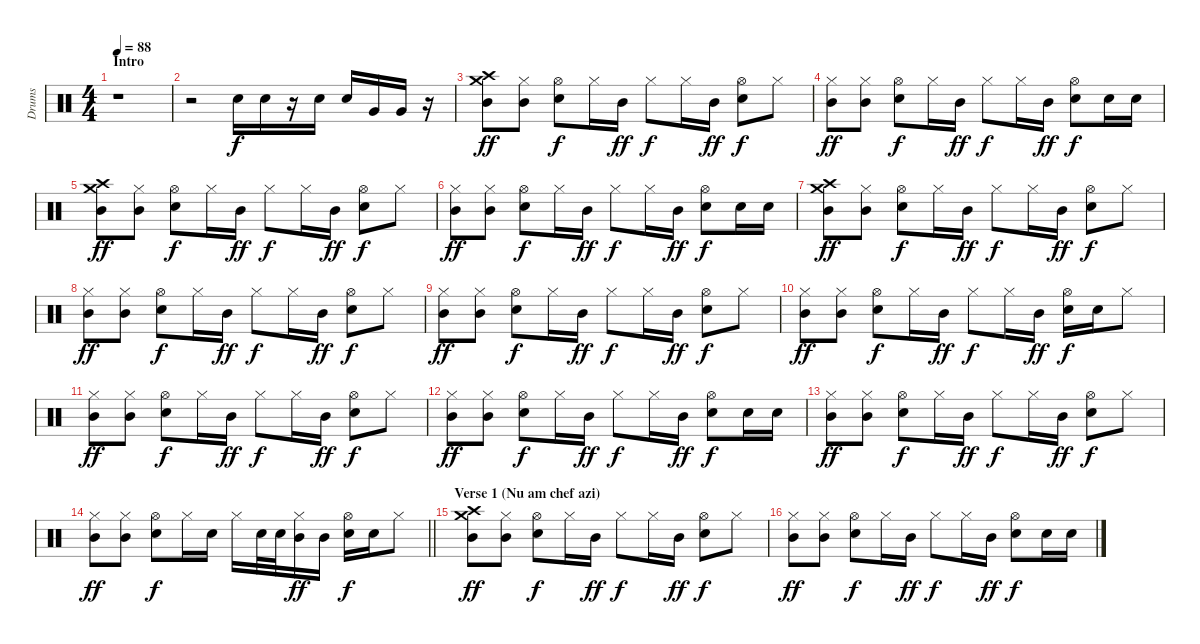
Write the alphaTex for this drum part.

\track ("Drums" "Drums") {instrument percussion}
\staff {score}
\articulation defaults
\ts (4 4)
\section ("" "Intro")
\tempo 88
\clef neutral
\ks c
r.1{dy f} |
r.2 "Metronome (bell)".16 "Metronome (bell)".16 r.16 "Metronome (bell)".16 "Metronome (bell)".16 "Very Low Tom (hit)".16 "Very Low Tom (hit)".16 r.16 |
("Crash medium (hit)" "Crash high (hit)" "Mid Tom (hit)").8{dy ff} ("Hi-Hat (closed)" "Mid Tom (hit)").8 ("Hi-Hat (open)" "Electric Snare (hit)").8{dy f} "Hi-Hat (closed)".16 "Mid Tom (hit)".16{dy ff} "Hi-Hat (closed)".8{dy f} "Hi-Hat (closed)".16 "Mid Tom (hit)".16{dy ff} ("Hi-Hat (open)" "Electric Snare (hit)").8{dy f} "Hi-Hat (closed)".8 |
("Hi-Hat (closed)" "Mid Tom (hit)").8{dy ff} ("Hi-Hat (closed)" "Mid Tom (hit)").8 ("Hi-Hat (open)" "Electric Snare (hit)").8{dy f} "Hi-Hat (closed)".16 "Mid Tom (hit)".16{dy ff} "Hi-Hat (closed)".8{dy f} "Hi-Hat (closed)".16 "Mid Tom (hit)".16{dy ff} ("Hi-Hat (open)" "Electric Snare (hit)").8{dy f} "Metronome (bell)".16 "Metronome (bell)".16 |
("Crash medium (hit)" "Crash high (hit)" "Mid Tom (hit)").8{dy ff} ("Hi-Hat (closed)" "Mid Tom (hit)").8 ("Hi-Hat (open)" "Electric Snare (hit)").8{dy f} "Hi-Hat (closed)".16 "Mid Tom (hit)".16{dy ff} "Hi-Hat (closed)".8{dy f} "Hi-Hat (closed)".16 "Mid Tom (hit)".16{dy ff} ("Hi-Hat (open)" "Electric Snare (hit)").8{dy f} "Hi-Hat (closed)".8 |
("Hi-Hat (closed)" "Mid Tom (hit)").8{dy ff} ("Hi-Hat (closed)" "Mid Tom (hit)").8 ("Hi-Hat (open)" "Electric Snare (hit)").8{dy f} "Hi-Hat (closed)".16 "Mid Tom (hit)".16{dy ff} "Hi-Hat (closed)".8{dy f} "Hi-Hat (closed)".16 "Mid Tom (hit)".16{dy ff} ("Hi-Hat (open)" "Electric Snare (hit)").8{dy f} "Metronome (bell)".16 "Metronome (bell)".16 |
("Crash medium (hit)" "Crash high (hit)" "Mid Tom (hit)").8{dy ff} ("Hi-Hat (closed)" "Mid Tom (hit)").8 ("Hi-Hat (open)" "Electric Snare (hit)").8{dy f} "Hi-Hat (closed)".16 "Mid Tom (hit)".16{dy ff} "Hi-Hat (closed)".8{dy f} "Hi-Hat (closed)".16 "Mid Tom (hit)".16{dy ff} ("Hi-Hat (open)" "Electric Snare (hit)").8{dy f} "Hi-Hat (closed)".8 |
("Hi-Hat (closed)" "Mid Tom (hit)").8{dy ff} ("Hi-Hat (closed)" "Mid Tom (hit)").8 ("Hi-Hat (open)" "Electric Snare (hit)").8{dy f} "Hi-Hat (closed)".16 "Mid Tom (hit)".16{dy ff} "Hi-Hat (closed)".8{dy f} "Hi-Hat (closed)".16 "Mid Tom (hit)".16{dy ff} ("Hi-Hat (open)" "Electric Snare (hit)").8{dy f} "Hi-Hat (closed)".8 |
("Hi-Hat (closed)" "Mid Tom (hit)").8{dy ff} ("Hi-Hat (closed)" "Mid Tom (hit)").8 ("Hi-Hat (open)" "Electric Snare (hit)").8{dy f} "Hi-Hat (closed)".16 "Mid Tom (hit)".16{dy ff} "Hi-Hat (closed)".8{dy f} "Hi-Hat (closed)".16 "Mid Tom (hit)".16{dy ff} ("Hi-Hat (open)" "Electric Snare (hit)").8{dy f} "Hi-Hat (closed)".8 |
("Hi-Hat (closed)" "Mid Tom (hit)").8{dy ff} ("Hi-Hat (closed)" "Mid Tom (hit)").8 ("Hi-Hat (open)" "Electric Snare (hit)").8{dy f} "Hi-Hat (closed)".16 "Mid Tom (hit)".16{dy ff} "Hi-Hat (closed)".8{dy f} "Hi-Hat (closed)".16 "Mid Tom (hit)".16{dy ff} ("Hi-Hat (open)" "Electric Snare (hit)").16{dy f} "Electric Snare (hit)".16 "Hi-Hat (closed)".8 |
("Hi-Hat (closed)" "Mid Tom (hit)").8{dy ff} ("Hi-Hat (closed)" "Mid Tom (hit)").8 ("Hi-Hat (open)" "Electric Snare (hit)").8{dy f} "Hi-Hat (closed)".16 "Mid Tom (hit)".16{dy ff} "Hi-Hat (closed)".8{dy f} "Hi-Hat (closed)".16 "Mid Tom (hit)".16{dy ff} ("Hi-Hat (open)" "Electric Snare (hit)").8{dy f} "Hi-Hat (closed)".8 |
("Hi-Hat (closed)" "Mid Tom (hit)").8{dy ff} ("Hi-Hat (closed)" "Mid Tom (hit)").8 ("Hi-Hat (open)" "Electric Snare (hit)").8{dy f} "Hi-Hat (closed)".16 "Mid Tom (hit)".16{dy ff} "Hi-Hat (closed)".8{dy f} "Hi-Hat (closed)".16 "Mid Tom (hit)".16{dy ff} ("Hi-Hat (open)" "Electric Snare (hit)").8{dy f} "Metronome (bell)".16 "Metronome (bell)".16 |
("Hi-Hat (closed)" "Mid Tom (hit)").8{dy ff} ("Hi-Hat (closed)" "Mid Tom (hit)").8 ("Hi-Hat (open)" "Electric Snare (hit)").8{dy f} "Hi-Hat (closed)".16 "Mid Tom (hit)".16{dy ff} "Hi-Hat (closed)".8{dy f} "Hi-Hat (closed)".16 "Mid Tom (hit)".16{dy ff} ("Hi-Hat (open)" "Electric Snare (hit)").8{dy f} "Hi-Hat (closed)".8 |
\barLineRight lightlight
("Hi-Hat (closed)" "Mid Tom (hit)").8{dy ff} ("Hi-Hat (closed)" "Mid Tom (hit)").8 ("Hi-Hat (open)" "Electric Snare (hit)").8{dy f} "Hi-Hat (closed)".16 "Electric Snare (hit)".16 "Hi-Hat (closed)".16 "Snare (hit) 2".32 "Snare (hit) 2".32 ("Hi-Hat (closed)" "Mid Tom (hit)").16{dy ff} "Mid Tom (hit)".16 ("Hi-Hat (open)" "Electric Snare (hit)").16{dy f} "Electric Snare (hit)".16 "Hi-Hat (closed)".8 |
\section ("" "Verse 1 (Nu am chef azi)")
("Crash medium (hit)" "Crash high (hit)" "Mid Tom (hit)").8{dy ff} ("Hi-Hat (closed)" "Mid Tom (hit)").8 ("Hi-Hat (open)" "Electric Snare (hit)").8{dy f} "Hi-Hat (closed)".16 "Mid Tom (hit)".16{dy ff} "Hi-Hat (closed)".8{dy f} "Hi-Hat (closed)".16 "Mid Tom (hit)".16{dy ff} ("Hi-Hat (open)" "Electric Snare (hit)").8{dy f} "Hi-Hat (closed)".8 |
("Hi-Hat (closed)" "Mid Tom (hit)").8{dy ff} ("Hi-Hat (closed)" "Mid Tom (hit)").8 ("Hi-Hat (open)" "Electric Snare (hit)").8{dy f} "Hi-Hat (closed)".16 "Mid Tom (hit)".16{dy ff} "Hi-Hat (closed)".8{dy f} "Hi-Hat (closed)".16 "Mid Tom (hit)".16{dy ff} ("Hi-Hat (open)" "Electric Snare (hit)").8{dy f} "Metronome (bell)".16 "Metronome (bell)".16
